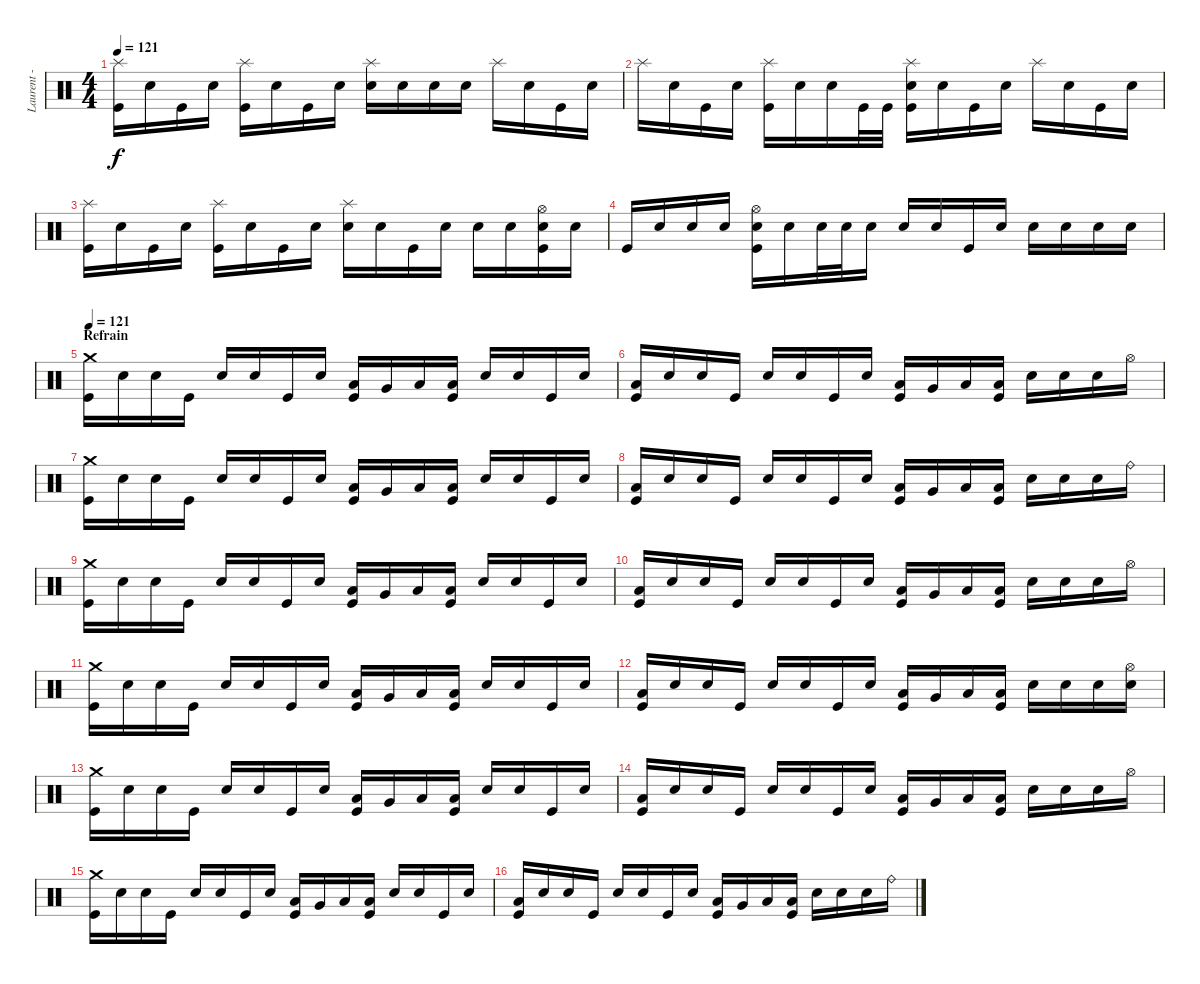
\track ("Laurent - Batterie" "Laurent - ") {instrument percussion}
\staff {score}
\articulation defaults
\ts (4 4)
\tempo 121
\clef neutral
\ks c
("Splash (hit)" "Kick (hit)").16{dy f} "Snare (hit)".16 "Kick (hit)".16 "Snare (hit)".16 ("Splash (hit)" "Kick (hit)").16 "Snare (hit)".16 "Kick (hit)".16 "Snare (hit)".16 ("Splash (hit)" "Electric Snare (hit)").16 "Snare (hit)".16 "Snare (hit)".16 "Snare (hit)".16 "Splash (hit)".16 "Snare (hit)".16 "Kick (hit)".16 "Snare (hit)".16 |
"Splash (hit)".16 "Snare (hit)".16 "Kick (hit)".16 "Snare (hit)".16 ("Splash (hit)" "Kick (hit)").16 "Snare (hit)".16 "Snare (hit)".16 "Kick (hit)".32 "Kick (hit)".32 ("Splash (hit)" "Electric Snare (hit)" "Kick (hit)").16 "Snare (hit)".16 "Kick (hit)".16 "Snare (hit)".16 "Splash (hit)".16 "Snare (hit)".16 "Kick (hit)".16 "Snare (hit)".16 |
("Splash (hit)" "Kick (hit)").16 "Snare (hit)".16 "Kick (hit)".16 "Snare (hit)".16 ("Splash (hit)" "Kick (hit)").16 "Snare (hit)".16 "Kick (hit)".16 "Snare (hit)".16 ("Splash (hit)" "Electric Snare (hit)").16 "Snare (hit)".16 "Kick (hit)".16 "Snare (hit)".16 "Electric Snare (hit)".16 "Snare (hit)".16 ("Hi-Hat (open)" "Electric Snare (hit)" "Kick (hit)").16 "Snare (hit)".16 |
"Kick (hit)".16 "Snare (hit)".16 "Electric Snare (hit)".16 "Snare (hit)".16 ("Hi-Hat (open)" "Electric Snare (hit)" "Kick (hit)").16 "Snare (hit)".16 "Electric Snare (hit)".32 "Electric Snare (hit)".32 "Electric Snare (hit)".16 "Electric Snare (hit)".16 "Snare (hit)".16 "Kick (hit)".16 "Electric Snare (hit)".16 "Electric Snare (hit)".16 "Electric Snare (hit)".16 "Electric Snare (hit)".16 "Electric Snare (hit)".16 |
\section ("" "Refrain")
\tempo 121
("Crash medium (hit)" "Kick (hit)").16{volume 16 balance 8} "Snare (hit)".16 "Snare (hit)".16 "Kick (hit)".16 "Electric Snare (hit)".16 "Snare (hit)".16 "Kick (hit)".16 "Snare (hit)".16 ("Low Tom (hit)" "Kick (hit)").16 "Very Low Tom (hit)".16 "Low Floor Tom (hit)".16 ("Low Floor Tom (hit)" "Kick (hit)").16 "Electric Snare (hit)".16 "Snare (hit)".16 "Kick (hit)".16 "Snare (hit)".16 |
("Low Floor Tom (hit)" "Kick (hit)").16 "Snare (hit)".16 "Snare (hit)".16 "Kick (hit)".16 "Electric Snare (hit)".16 "Snare (hit)".16 "Kick (hit)".16 "Snare (hit)".16 ("Low Tom (hit)" "Kick (hit)").16 "Very Low Tom (hit)".16 "Low Floor Tom (hit)".16 ("Low Floor Tom (hit)" "Kick (hit)").16 "Electric Snare (hit)".16 "Snare (hit)".16 "Snare (hit)".16 "Hi-Hat (open)".16 |
("Crash medium (hit)" "Kick (hit)").16 "Snare (hit)".16 "Snare (hit)".16 "Kick (hit)".16 "Electric Snare (hit)".16 "Snare (hit)".16 "Kick (hit)".16 "Snare (hit)".16 ("Low Tom (hit)" "Kick (hit)").16 "Very Low Tom (hit)".16 "Low Floor Tom (hit)".16 ("Low Floor Tom (hit)" "Kick (hit)").16 "Electric Snare (hit)".16 "Snare (hit)".16 "Kick (hit)".16 "Snare (hit)".16 |
("Low Floor Tom (hit)" "Kick (hit)").16 "Snare (hit)".16 "Snare (hit)".16 "Kick (hit)".16 "Electric Snare (hit)".16 "Snare (hit)".16 "Kick (hit)".16 "Snare (hit)".16 ("Low Tom (hit)" "Kick (hit)").16 "Very Low Tom (hit)".16 "Low Floor Tom (hit)".16 ("Low Floor Tom (hit)" "Kick (hit)").16 "Electric Snare (hit)".16 "Snare (hit)".16 "Snare (hit)".16 "Ride (bell)".16 |
("Crash medium (hit)" "Kick (hit)").16 "Snare (hit)".16 "Snare (hit)".16 "Kick (hit)".16 "Electric Snare (hit)".16 "Snare (hit)".16 "Kick (hit)".16 "Snare (hit)".16 ("Low Tom (hit)" "Kick (hit)").16 "Very Low Tom (hit)".16 "Low Floor Tom (hit)".16 ("Low Floor Tom (hit)" "Kick (hit)").16 "Electric Snare (hit)".16 "Snare (hit)".16 "Kick (hit)".16 "Snare (hit)".16 |
("Low Floor Tom (hit)" "Kick (hit)").16 "Snare (hit)".16 "Snare (hit)".16 "Kick (hit)".16 "Electric Snare (hit)".16 "Snare (hit)".16 "Kick (hit)".16 "Snare (hit)".16 ("Low Tom (hit)" "Kick (hit)").16 "Very Low Tom (hit)".16 "Low Floor Tom (hit)".16 ("Low Floor Tom (hit)" "Kick (hit)").16 "Electric Snare (hit)".16 "Snare (hit)".16 "Snare (hit)".16 "Hi-Hat (open)".16 |
("Crash medium (hit)" "Kick (hit)").16 "Snare (hit)".16 "Snare (hit)".16 "Kick (hit)".16 "Electric Snare (hit)".16 "Snare (hit)".16 "Kick (hit)".16 "Snare (hit)".16 ("Low Tom (hit)" "Kick (hit)").16 "Very Low Tom (hit)".16 "Low Floor Tom (hit)".16 ("Low Floor Tom (hit)" "Kick (hit)").16 "Electric Snare (hit)".16 "Snare (hit)".16 "Kick (hit)".16 "Snare (hit)".16 |
("Low Floor Tom (hit)" "Kick (hit)").16 "Snare (hit)".16 "Snare (hit)".16 "Kick (hit)".16 "Electric Snare (hit)".16 "Snare (hit)".16 "Kick (hit)".16 "Snare (hit)".16 ("Low Tom (hit)" "Kick (hit)").16 "Very Low Tom (hit)".16 "Low Floor Tom (hit)".16 ("Low Floor Tom (hit)" "Kick (hit)").16 "Electric Snare (hit)".16 "Electric Snare (hit)".16 "Electric Snare (hit)".16 ("Hi-Hat (open)" "Electric Snare (hit)").16 |
\section ("" "")
("Crash medium (hit)" "Kick (hit)").16{volume 16 balance 8} "Snare (hit)".16 "Snare (hit)".16 "Kick (hit)".16 "Electric Snare (hit)".16 "Snare (hit)".16 "Kick (hit)".16 "Snare (hit)".16 ("Low Tom (hit)" "Kick (hit)").16 "Very Low Tom (hit)".16 "Low Floor Tom (hit)".16 ("Low Floor Tom (hit)" "Kick (hit)").16 "Electric Snare (hit)".16 "Snare (hit)".16 "Kick (hit)".16 "Snare (hit)".16 |
("Low Floor Tom (hit)" "Kick (hit)").16 "Snare (hit)".16 "Snare (hit)".16 "Kick (hit)".16 "Electric Snare (hit)".16 "Snare (hit)".16 "Kick (hit)".16 "Snare (hit)".16 ("Low Tom (hit)" "Kick (hit)").16 "Very Low Tom (hit)".16 "Low Floor Tom (hit)".16 ("Low Floor Tom (hit)" "Kick (hit)").16 "Electric Snare (hit)".16 "Snare (hit)".16 "Snare (hit)".16 "Hi-Hat (open)".16 |
("Crash medium (hit)" "Kick (hit)").16 "Snare (hit)".16 "Snare (hit)".16 "Kick (hit)".16 "Electric Snare (hit)".16 "Snare (hit)".16 "Kick (hit)".16 "Snare (hit)".16 ("Low Tom (hit)" "Kick (hit)").16 "Very Low Tom (hit)".16 "Low Floor Tom (hit)".16 ("Low Floor Tom (hit)" "Kick (hit)").16 "Electric Snare (hit)".16 "Snare (hit)".16 "Kick (hit)".16 "Snare (hit)".16 |
("Low Floor Tom (hit)" "Kick (hit)").16 "Snare (hit)".16 "Snare (hit)".16 "Kick (hit)".16 "Electric Snare (hit)".16 "Snare (hit)".16 "Kick (hit)".16 "Snare (hit)".16 ("Low Tom (hit)" "Kick (hit)").16 "Very Low Tom (hit)".16 "Low Floor Tom (hit)".16 ("Low Floor Tom (hit)" "Kick (hit)").16 "Electric Snare (hit)".16 "Snare (hit)".16 "Snare (hit)".16 "Ride (bell)".16
